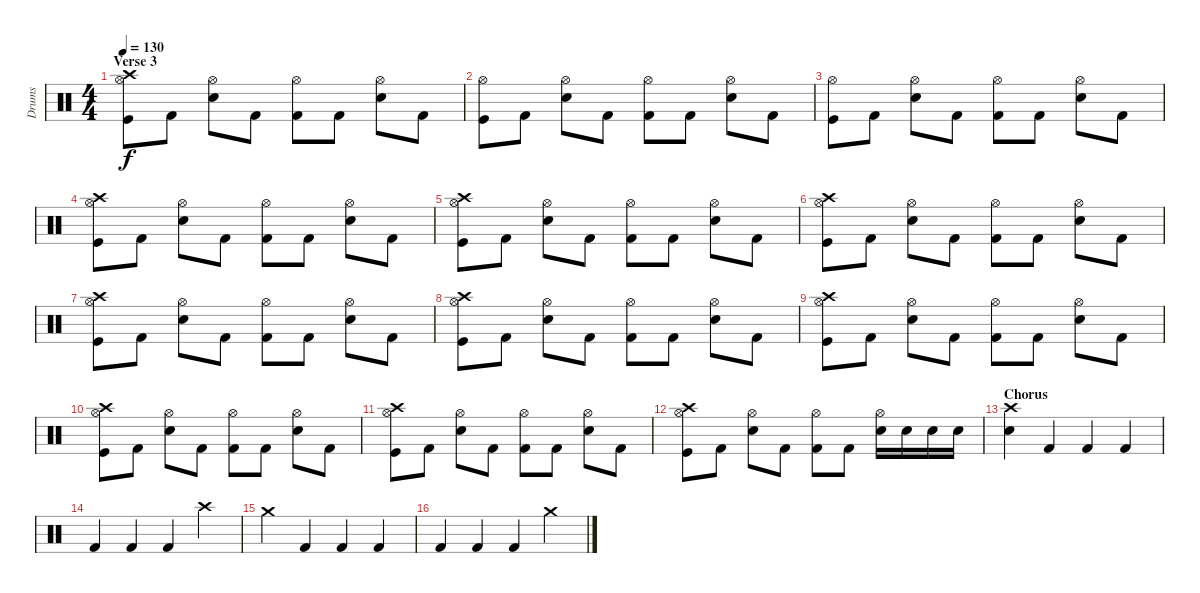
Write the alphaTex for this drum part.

\track ("Drums" "Drums") {instrument percussion}
\staff {score}
\articulation defaults
\ts (4 4)
\section ("" "Verse 3")
\tempo 130
\clef neutral
\ks c
("Crash high (hit)" "Hi-Hat (open)" "Kick (hit)").8{dy f} "Kick (hit) 2".8 ("Hi-Hat (open)" "Electric Snare (hit)").8 "Kick (hit) 2".8 ("Hi-Hat (open)" "Kick (hit) 2").8 "Kick (hit) 2".8 ("Hi-Hat (open)" "Electric Snare (hit)").8 "Kick (hit) 2".8 |
("Hi-Hat (open)" "Kick (hit)").8 "Kick (hit) 2".8 ("Hi-Hat (open)" "Electric Snare (hit)").8 "Kick (hit) 2".8 ("Hi-Hat (open)" "Kick (hit) 2").8 "Kick (hit) 2".8 ("Hi-Hat (open)" "Electric Snare (hit)").8 "Kick (hit) 2".8 |
("Hi-Hat (open)" "Kick (hit)").8 "Kick (hit) 2".8 ("Hi-Hat (open)" "Electric Snare (hit)").8 "Kick (hit) 2".8 ("Hi-Hat (open)" "Kick (hit) 2").8 "Kick (hit) 2".8 ("Hi-Hat (open)" "Electric Snare (hit)").8 "Kick (hit) 2".8 |
("Crash high (hit)" "Hi-Hat (open)" "Kick (hit)").8 "Kick (hit) 2".8 ("Hi-Hat (open)" "Electric Snare (hit)").8 "Kick (hit) 2".8 ("Hi-Hat (open)" "Kick (hit) 2").8 "Kick (hit) 2".8 ("Hi-Hat (open)" "Electric Snare (hit)").8 "Kick (hit) 2".8 |
("Crash high (hit)" "Hi-Hat (open)" "Kick (hit)").8 "Kick (hit) 2".8 ("Hi-Hat (open)" "Electric Snare (hit)").8 "Kick (hit) 2".8 ("Hi-Hat (open)" "Kick (hit) 2").8 "Kick (hit) 2".8 ("Hi-Hat (open)" "Electric Snare (hit)").8 "Kick (hit) 2".8 |
("Crash high (hit)" "Hi-Hat (open)" "Kick (hit)").8 "Kick (hit) 2".8 ("Hi-Hat (open)" "Electric Snare (hit)").8 "Kick (hit) 2".8 ("Hi-Hat (open)" "Kick (hit) 2").8 "Kick (hit) 2".8 ("Hi-Hat (open)" "Electric Snare (hit)").8 "Kick (hit) 2".8 |
("Crash high (hit)" "Hi-Hat (open)" "Kick (hit)").8 "Kick (hit) 2".8 ("Hi-Hat (open)" "Electric Snare (hit)").8 "Kick (hit) 2".8 ("Hi-Hat (open)" "Kick (hit) 2").8 "Kick (hit) 2".8 ("Hi-Hat (open)" "Electric Snare (hit)").8 "Kick (hit) 2".8 |
("Crash high (hit)" "Hi-Hat (open)" "Kick (hit)").8 "Kick (hit) 2".8 ("Hi-Hat (open)" "Electric Snare (hit)").8 "Kick (hit) 2".8 ("Hi-Hat (open)" "Kick (hit) 2").8 "Kick (hit) 2".8 ("Hi-Hat (open)" "Electric Snare (hit)").8 "Kick (hit) 2".8 |
("Crash high (hit)" "Hi-Hat (open)" "Kick (hit)").8 "Kick (hit) 2".8 ("Hi-Hat (open)" "Electric Snare (hit)").8 "Kick (hit) 2".8 ("Hi-Hat (open)" "Kick (hit) 2").8 "Kick (hit) 2".8 ("Hi-Hat (open)" "Electric Snare (hit)").8 "Kick (hit) 2".8 |
("Crash high (hit)" "Hi-Hat (open)" "Kick (hit)").8 "Kick (hit) 2".8 ("Hi-Hat (open)" "Electric Snare (hit)").8 "Kick (hit) 2".8 ("Hi-Hat (open)" "Kick (hit) 2").8 "Kick (hit) 2".8 ("Hi-Hat (open)" "Electric Snare (hit)").8 "Kick (hit) 2".8 |
("Crash high (hit)" "Hi-Hat (open)" "Kick (hit)").8 "Kick (hit) 2".8 ("Hi-Hat (open)" "Electric Snare (hit)").8 "Kick (hit) 2".8 ("Hi-Hat (open)" "Kick (hit) 2").8 "Kick (hit) 2".8 ("Hi-Hat (open)" "Electric Snare (hit)").8 "Kick (hit) 2".8 |
("Crash high (hit)" "Hi-Hat (open)" "Kick (hit)").8 "Kick (hit) 2".8 ("Hi-Hat (open)" "Electric Snare (hit)").8 "Kick (hit) 2".8 ("Hi-Hat (open)" "Kick (hit) 2").8 "Kick (hit) 2".8 ("Hi-Hat (open)" "Electric Snare (hit)").16 "Electric Snare (hit)".16 "Electric Snare (hit)".16 "Electric Snare (hit)".16 |
\section ("" "Chorus")
("Crash high (hit)" "Electric Snare (hit)").4 "Kick (hit) 2".4 "Kick (hit) 2".4 "Kick (hit) 2".4 |
"Kick (hit) 2".4 "Kick (hit) 2".4 "Kick (hit) 2".4 "Crash high (hit)".4 |
"Crash medium (hit)".4 "Kick (hit) 2".4 "Kick (hit) 2".4 "Kick (hit) 2".4 |
"Kick (hit) 2".4 "Kick (hit) 2".4 "Kick (hit) 2".4 "Crash medium (hit)".4
